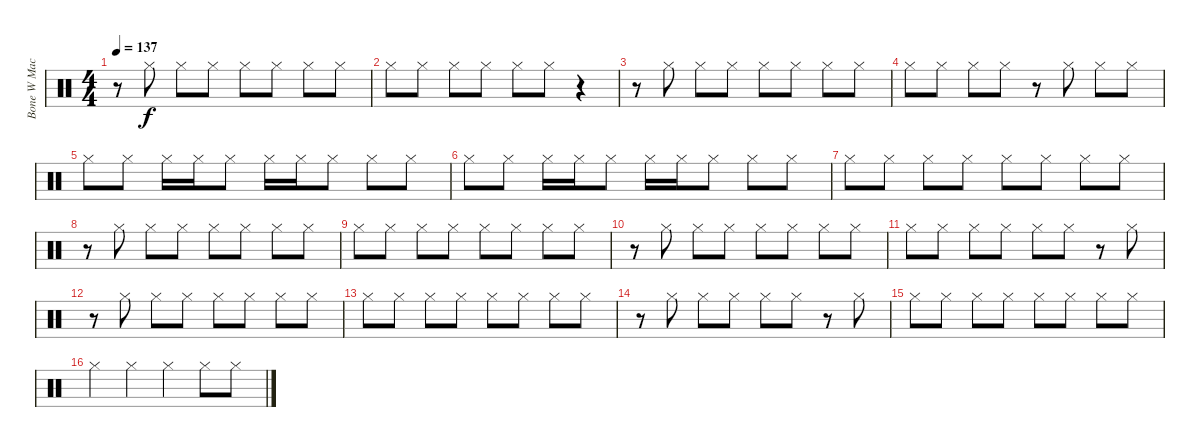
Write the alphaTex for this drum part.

\track ("Bone W Machine Cimbals" "Bone W Mac") {instrument percussion}
\staff {score}
\articulation defaults
\ts (4 4)
\tempo 137
\clef neutral
\ks c
r.8{dy f} "Hi-Hat (closed)".8 "Hi-Hat (closed)".8 "Hi-Hat (closed)".8 "Hi-Hat (closed)".8 "Hi-Hat (closed)".8 "Hi-Hat (closed)".8 "Hi-Hat (closed)".8 |
"Hi-Hat (closed)".8 "Hi-Hat (closed)".8 "Hi-Hat (closed)".8 "Hi-Hat (closed)".8 "Hi-Hat (closed)".8 "Hi-Hat (closed)".8 r.4 |
r.8 "Hi-Hat (closed)".8 "Hi-Hat (closed)".8 "Hi-Hat (closed)".8 "Hi-Hat (closed)".8 "Hi-Hat (closed)".8 "Hi-Hat (closed)".8 "Hi-Hat (closed)".8 |
"Hi-Hat (closed)".8 "Hi-Hat (closed)".8 "Hi-Hat (closed)".8 "Hi-Hat (closed)".8 r.8 "Hi-Hat (closed)".8 "Hi-Hat (closed)".8 "Hi-Hat (closed)".8 |
"Hi-Hat (closed)".8 "Hi-Hat (closed)".8 "Hi-Hat (closed)".16 "Hi-Hat (closed)".16 "Hi-Hat (closed)".8 "Hi-Hat (closed)".16 "Hi-Hat (closed)".16 "Hi-Hat (closed)".8 "Hi-Hat (closed)".8 "Hi-Hat (closed)".8 |
"Hi-Hat (closed)".8 "Hi-Hat (closed)".8 "Hi-Hat (closed)".16 "Hi-Hat (closed)".16 "Hi-Hat (closed)".8 "Hi-Hat (closed)".16 "Hi-Hat (closed)".16 "Hi-Hat (closed)".8 "Hi-Hat (closed)".8 "Hi-Hat (closed)".8 |
"Hi-Hat (closed)".8 "Hi-Hat (closed)".8 "Hi-Hat (closed)".8 "Hi-Hat (closed)".8 "Hi-Hat (closed)".8 "Hi-Hat (closed)".8 "Hi-Hat (closed)".8 "Hi-Hat (closed)".8 |
r.8 "Hi-Hat (closed)".8 "Hi-Hat (closed)".8 "Hi-Hat (closed)".8 "Hi-Hat (closed)".8 "Hi-Hat (closed)".8 "Hi-Hat (closed)".8 "Hi-Hat (closed)".8 |
"Hi-Hat (closed)".8 "Hi-Hat (closed)".8 "Hi-Hat (closed)".8 "Hi-Hat (closed)".8 "Hi-Hat (closed)".8 "Hi-Hat (closed)".8 "Hi-Hat (closed)".8 "Hi-Hat (closed)".8 |
r.8 "Hi-Hat (closed)".8 "Hi-Hat (closed)".8 "Hi-Hat (closed)".8 "Hi-Hat (closed)".8 "Hi-Hat (closed)".8 "Hi-Hat (closed)".8 "Hi-Hat (closed)".8 |
"Hi-Hat (closed)".8 "Hi-Hat (closed)".8 "Hi-Hat (closed)".8 "Hi-Hat (closed)".8 "Hi-Hat (closed)".8 "Hi-Hat (closed)".8 r.8 "Hi-Hat (closed)".8 |
r.8 "Hi-Hat (closed)".8 "Hi-Hat (closed)".8 "Hi-Hat (closed)".8 "Hi-Hat (closed)".8 "Hi-Hat (closed)".8 "Hi-Hat (closed)".8 "Hi-Hat (closed)".8 |
"Hi-Hat (closed)".8 "Hi-Hat (closed)".8 "Hi-Hat (closed)".8 "Hi-Hat (closed)".8 "Hi-Hat (closed)".8 "Hi-Hat (closed)".8 "Hi-Hat (closed)".8 "Hi-Hat (closed)".8 |
r.8 "Hi-Hat (closed)".8 "Hi-Hat (closed)".8 "Hi-Hat (closed)".8 "Hi-Hat (closed)".8 "Hi-Hat (closed)".8 r.8 "Hi-Hat (closed)".8 |
"Hi-Hat (closed)".8 "Hi-Hat (closed)".8 "Hi-Hat (closed)".8 "Hi-Hat (closed)".8 "Hi-Hat (closed)".8 "Hi-Hat (closed)".8 "Hi-Hat (closed)".8 "Hi-Hat (closed)".8 |
"Hi-Hat (closed)".4 "Hi-Hat (closed)".4 "Hi-Hat (closed)".4 "Hi-Hat (closed)".8 "Hi-Hat (closed)".8
